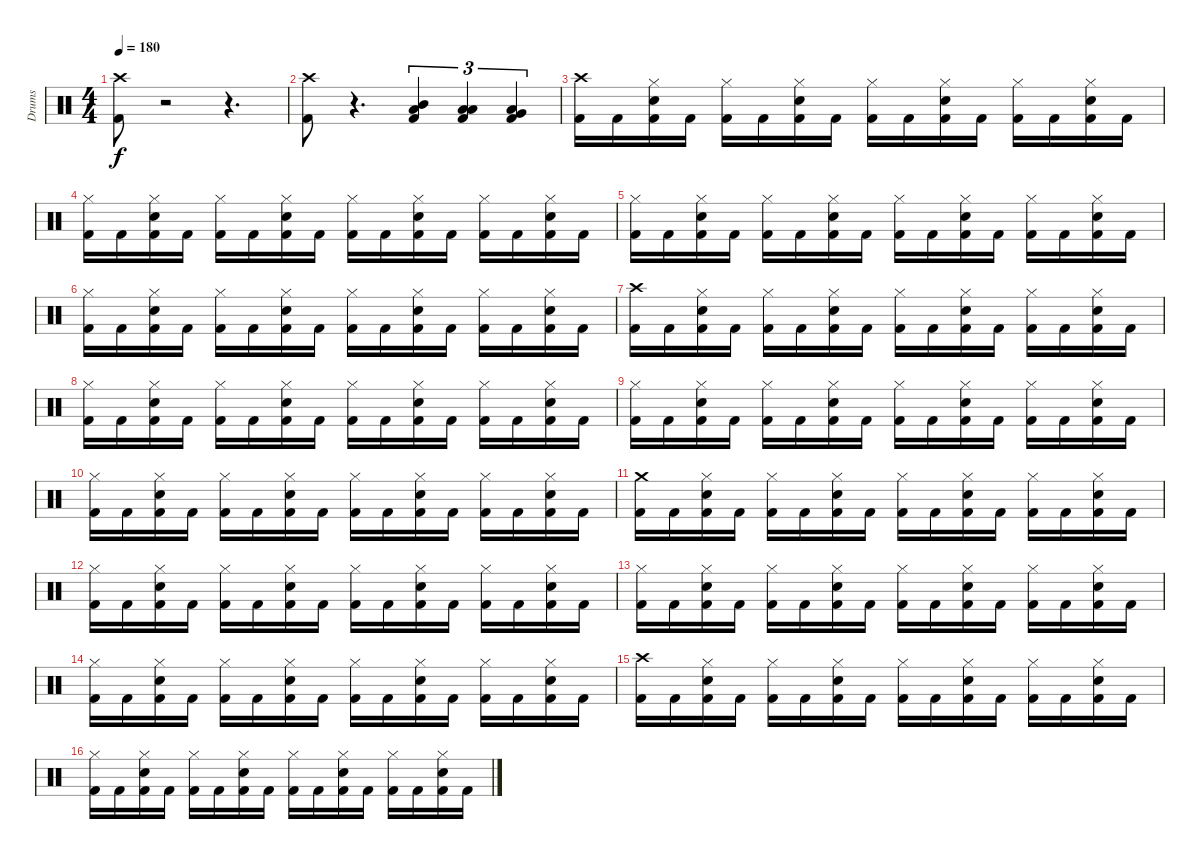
\track ("Drums" "Drums") {instrument percussion}
\staff {score}
\articulation defaults
\ts (4 4)
\tempo 180
\clef neutral
\ks c
("Kick (hit) 2" "Crash high (hit)").8{dy f} r.2 r.4{d} |
("Kick (hit) 2" "Crash high (hit)").8 r.4{d} ("Kick (hit) 2" "Mid Tom (hit)" "Low Tom (hit)").4{tu (3 2)} ("Kick (hit) 2" "Low Tom (hit)" "Low Tom (hit)").4{tu (3 2)} ("Kick (hit) 2" "Very Low Tom (hit)" "Low Tom (hit)").4{tu (3 2)} |
("Kick (hit) 2" "Crash high (hit)").16 "Kick (hit) 2".16 ("Kick (hit) 2" "Hi-Hat (closed)" "Snare (hit) 2").16 "Kick (hit) 2".16 ("Kick (hit) 2" "Hi-Hat (closed)").16 "Kick (hit) 2".16 ("Kick (hit) 2" "Hi-Hat (closed)" "Snare (hit) 2").16 "Kick (hit) 2".16 ("Kick (hit) 2" "Hi-Hat (closed)").16 "Kick (hit) 2".16 ("Kick (hit) 2" "Hi-Hat (closed)" "Snare (hit) 2").16 "Kick (hit) 2".16 ("Kick (hit) 2" "Hi-Hat (closed)").16 "Kick (hit) 2".16 ("Kick (hit) 2" "Hi-Hat (closed)" "Snare (hit) 2").16 "Kick (hit) 2".16 |
("Kick (hit) 2" "Hi-Hat (closed)").16 "Kick (hit) 2".16 ("Kick (hit) 2" "Hi-Hat (closed)" "Snare (hit) 2").16 "Kick (hit) 2".16 ("Kick (hit) 2" "Hi-Hat (closed)").16 "Kick (hit) 2".16 ("Kick (hit) 2" "Hi-Hat (closed)" "Snare (hit) 2").16 "Kick (hit) 2".16 ("Kick (hit) 2" "Hi-Hat (closed)").16 "Kick (hit) 2".16 ("Kick (hit) 2" "Hi-Hat (closed)" "Snare (hit) 2").16 "Kick (hit) 2".16 ("Kick (hit) 2" "Hi-Hat (closed)").16 "Kick (hit) 2".16 ("Kick (hit) 2" "Hi-Hat (closed)" "Snare (hit) 2").16 "Kick (hit) 2".16 |
("Kick (hit) 2" "Hi-Hat (closed)").16 "Kick (hit) 2".16 ("Kick (hit) 2" "Hi-Hat (closed)" "Snare (hit) 2").16 "Kick (hit) 2".16 ("Kick (hit) 2" "Hi-Hat (closed)").16 "Kick (hit) 2".16 ("Kick (hit) 2" "Hi-Hat (closed)" "Snare (hit) 2").16 "Kick (hit) 2".16 ("Kick (hit) 2" "Hi-Hat (closed)").16 "Kick (hit) 2".16 ("Kick (hit) 2" "Hi-Hat (closed)" "Snare (hit) 2").16 "Kick (hit) 2".16 ("Kick (hit) 2" "Hi-Hat (closed)").16 "Kick (hit) 2".16 ("Kick (hit) 2" "Hi-Hat (closed)" "Snare (hit) 2").16 "Kick (hit) 2".16 |
("Kick (hit) 2" "Hi-Hat (closed)").16 "Kick (hit) 2".16 ("Kick (hit) 2" "Hi-Hat (closed)" "Snare (hit) 2").16 "Kick (hit) 2".16 ("Kick (hit) 2" "Hi-Hat (closed)").16 "Kick (hit) 2".16 ("Kick (hit) 2" "Hi-Hat (closed)" "Snare (hit) 2").16 "Kick (hit) 2".16 ("Kick (hit) 2" "Hi-Hat (closed)").16 "Kick (hit) 2".16 ("Kick (hit) 2" "Hi-Hat (closed)" "Snare (hit) 2").16 "Kick (hit) 2".16 ("Kick (hit) 2" "Hi-Hat (closed)").16 "Kick (hit) 2".16 ("Kick (hit) 2" "Hi-Hat (closed)" "Snare (hit) 2").16 "Kick (hit) 2".16 |
("Kick (hit) 2" "Crash high (hit)").16 "Kick (hit) 2".16 ("Kick (hit) 2" "Hi-Hat (closed)" "Snare (hit) 2").16 "Kick (hit) 2".16 ("Kick (hit) 2" "Hi-Hat (closed)").16 "Kick (hit) 2".16 ("Kick (hit) 2" "Hi-Hat (closed)" "Snare (hit) 2").16 "Kick (hit) 2".16 ("Kick (hit) 2" "Hi-Hat (closed)").16 "Kick (hit) 2".16 ("Kick (hit) 2" "Hi-Hat (closed)" "Snare (hit) 2").16 "Kick (hit) 2".16 ("Kick (hit) 2" "Hi-Hat (closed)").16 "Kick (hit) 2".16 ("Kick (hit) 2" "Hi-Hat (closed)" "Snare (hit) 2").16 "Kick (hit) 2".16 |
("Kick (hit) 2" "Hi-Hat (closed)").16 "Kick (hit) 2".16 ("Kick (hit) 2" "Hi-Hat (closed)" "Snare (hit) 2").16 "Kick (hit) 2".16 ("Kick (hit) 2" "Hi-Hat (closed)").16 "Kick (hit) 2".16 ("Kick (hit) 2" "Hi-Hat (closed)" "Snare (hit) 2").16 "Kick (hit) 2".16 ("Kick (hit) 2" "Hi-Hat (closed)").16 "Kick (hit) 2".16 ("Kick (hit) 2" "Hi-Hat (closed)" "Snare (hit) 2").16 "Kick (hit) 2".16 ("Kick (hit) 2" "Hi-Hat (closed)").16 "Kick (hit) 2".16 ("Kick (hit) 2" "Hi-Hat (closed)" "Snare (hit) 2").16 "Kick (hit) 2".16 |
("Kick (hit) 2" "Hi-Hat (closed)").16 "Kick (hit) 2".16 ("Kick (hit) 2" "Hi-Hat (closed)" "Snare (hit) 2").16 "Kick (hit) 2".16 ("Kick (hit) 2" "Hi-Hat (closed)").16 "Kick (hit) 2".16 ("Kick (hit) 2" "Hi-Hat (closed)" "Snare (hit) 2").16 "Kick (hit) 2".16 ("Kick (hit) 2" "Hi-Hat (closed)").16 "Kick (hit) 2".16 ("Kick (hit) 2" "Hi-Hat (closed)" "Snare (hit) 2").16 "Kick (hit) 2".16 ("Kick (hit) 2" "Hi-Hat (closed)").16 "Kick (hit) 2".16 ("Kick (hit) 2" "Hi-Hat (closed)" "Snare (hit) 2").16 "Kick (hit) 2".16 |
("Kick (hit) 2" "Hi-Hat (closed)").16 "Kick (hit) 2".16 ("Kick (hit) 2" "Hi-Hat (closed)" "Snare (hit) 2").16 "Kick (hit) 2".16 ("Kick (hit) 2" "Hi-Hat (closed)").16 "Kick (hit) 2".16 ("Kick (hit) 2" "Hi-Hat (closed)" "Snare (hit) 2").16 "Kick (hit) 2".16 ("Kick (hit) 2" "Hi-Hat (closed)").16 "Kick (hit) 2".16 ("Kick (hit) 2" "Hi-Hat (closed)" "Snare (hit) 2").16 "Kick (hit) 2".16 ("Kick (hit) 2" "Hi-Hat (closed)").16 "Kick (hit) 2".16 ("Kick (hit) 2" "Hi-Hat (closed)" "Snare (hit) 2").16 "Kick (hit) 2".16 |
("Kick (hit) 2" "Crash medium (hit)").16 "Kick (hit) 2".16 ("Kick (hit) 2" "Hi-Hat (closed)" "Snare (hit) 2").16 "Kick (hit) 2".16 ("Kick (hit) 2" "Hi-Hat (closed)").16 "Kick (hit) 2".16 ("Kick (hit) 2" "Hi-Hat (closed)" "Snare (hit) 2").16 "Kick (hit) 2".16 ("Kick (hit) 2" "Hi-Hat (closed)").16 "Kick (hit) 2".16 ("Kick (hit) 2" "Hi-Hat (closed)" "Snare (hit) 2").16 "Kick (hit) 2".16 ("Kick (hit) 2" "Hi-Hat (closed)").16 "Kick (hit) 2".16 ("Kick (hit) 2" "Hi-Hat (closed)" "Snare (hit) 2").16 "Kick (hit) 2".16 |
("Kick (hit) 2" "Hi-Hat (closed)").16 "Kick (hit) 2".16 ("Kick (hit) 2" "Hi-Hat (closed)" "Snare (hit) 2").16 "Kick (hit) 2".16 ("Kick (hit) 2" "Hi-Hat (closed)").16 "Kick (hit) 2".16 ("Kick (hit) 2" "Hi-Hat (closed)" "Snare (hit) 2").16 "Kick (hit) 2".16 ("Kick (hit) 2" "Hi-Hat (closed)").16 "Kick (hit) 2".16 ("Kick (hit) 2" "Hi-Hat (closed)" "Snare (hit) 2").16 "Kick (hit) 2".16 ("Kick (hit) 2" "Hi-Hat (closed)").16 "Kick (hit) 2".16 ("Kick (hit) 2" "Hi-Hat (closed)" "Snare (hit) 2").16 "Kick (hit) 2".16 |
("Kick (hit) 2" "Hi-Hat (closed)").16 "Kick (hit) 2".16 ("Kick (hit) 2" "Hi-Hat (closed)" "Snare (hit) 2").16 "Kick (hit) 2".16 ("Kick (hit) 2" "Hi-Hat (closed)").16 "Kick (hit) 2".16 ("Kick (hit) 2" "Hi-Hat (closed)" "Snare (hit) 2").16 "Kick (hit) 2".16 ("Kick (hit) 2" "Hi-Hat (closed)").16 "Kick (hit) 2".16 ("Kick (hit) 2" "Hi-Hat (closed)" "Snare (hit) 2").16 "Kick (hit) 2".16 ("Kick (hit) 2" "Hi-Hat (closed)").16 "Kick (hit) 2".16 ("Kick (hit) 2" "Hi-Hat (closed)" "Snare (hit) 2").16 "Kick (hit) 2".16 |
("Kick (hit) 2" "Hi-Hat (closed)").16 "Kick (hit) 2".16 ("Kick (hit) 2" "Hi-Hat (closed)" "Snare (hit) 2").16 "Kick (hit) 2".16 ("Kick (hit) 2" "Hi-Hat (closed)").16 "Kick (hit) 2".16 ("Kick (hit) 2" "Hi-Hat (closed)" "Snare (hit) 2").16 "Kick (hit) 2".16 ("Kick (hit) 2" "Hi-Hat (closed)").16 "Kick (hit) 2".16 ("Kick (hit) 2" "Hi-Hat (closed)" "Snare (hit) 2").16 "Kick (hit) 2".16 ("Kick (hit) 2" "Hi-Hat (closed)").16 "Kick (hit) 2".16 ("Kick (hit) 2" "Hi-Hat (closed)" "Snare (hit) 2").16 "Kick (hit) 2".16 |
("Kick (hit) 2" "Crash high (hit)").16 "Kick (hit) 2".16 ("Kick (hit) 2" "Hi-Hat (closed)" "Snare (hit) 2").16 "Kick (hit) 2".16 ("Kick (hit) 2" "Hi-Hat (closed)").16 "Kick (hit) 2".16 ("Kick (hit) 2" "Hi-Hat (closed)" "Snare (hit) 2").16 "Kick (hit) 2".16 ("Kick (hit) 2" "Hi-Hat (closed)").16 "Kick (hit) 2".16 ("Kick (hit) 2" "Hi-Hat (closed)" "Snare (hit) 2").16 "Kick (hit) 2".16 ("Kick (hit) 2" "Hi-Hat (closed)").16 "Kick (hit) 2".16 ("Kick (hit) 2" "Hi-Hat (closed)" "Snare (hit) 2").16 "Kick (hit) 2".16 |
("Kick (hit) 2" "Hi-Hat (closed)").16 "Kick (hit) 2".16 ("Kick (hit) 2" "Hi-Hat (closed)" "Snare (hit) 2").16 "Kick (hit) 2".16 ("Kick (hit) 2" "Hi-Hat (closed)").16 "Kick (hit) 2".16 ("Kick (hit) 2" "Hi-Hat (closed)" "Snare (hit) 2").16 "Kick (hit) 2".16 ("Kick (hit) 2" "Hi-Hat (closed)").16 "Kick (hit) 2".16 ("Kick (hit) 2" "Hi-Hat (closed)" "Snare (hit) 2").16 "Kick (hit) 2".16 ("Kick (hit) 2" "Hi-Hat (closed)").16 "Kick (hit) 2".16 ("Kick (hit) 2" "Hi-Hat (closed)" "Snare (hit) 2").16 "Kick (hit) 2".16
